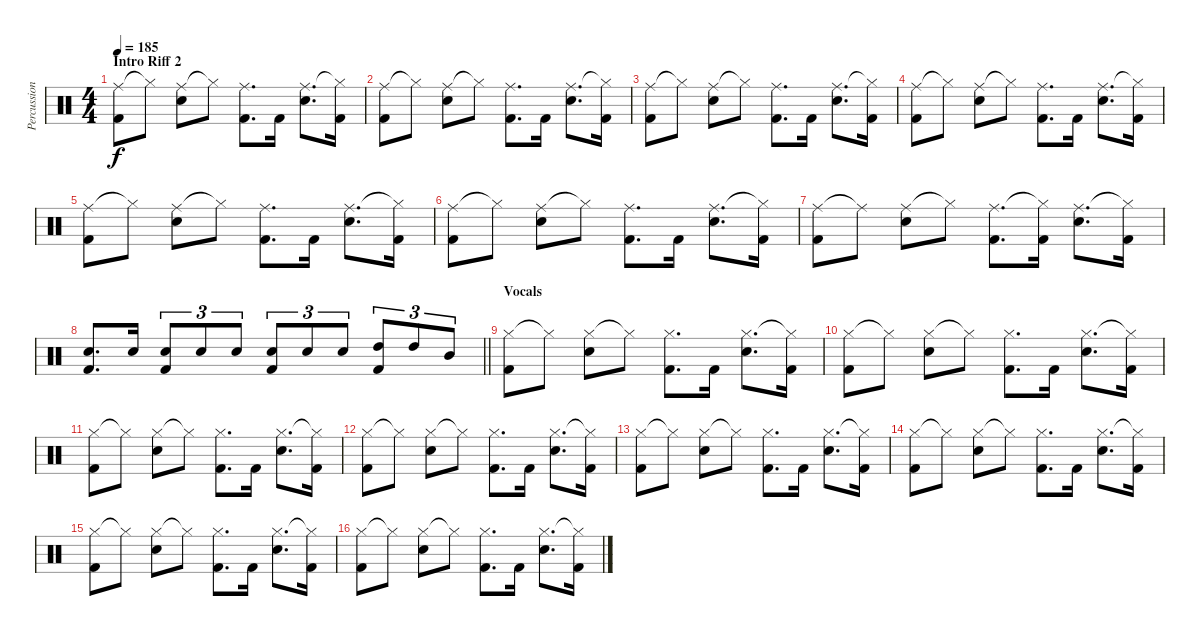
\track ("Percussion" "Percussion") {instrument percussion}
\staff {score}
\articulation defaults
\ts (4 4)
\section ("" "Intro Riff 2")
\tempo 185
\clef neutral
\ks c
("Ride (middle)" "Kick (hit) 2").8{dy f} "Hi-Hat (closed)"{t}.8 ("Ride (middle)" "Snare (hit) 2").8 "Hi-Hat (closed)"{t}.8 ("Ride (middle)" "Kick (hit) 2").8{d} "Kick (hit) 2".16 ("Ride (middle)" "Snare (hit) 2").8{d} ("Hi-Hat (closed)"{t} "Kick (hit) 2").16 |
("Ride (middle)" "Kick (hit) 2").8 "Hi-Hat (closed)"{t}.8 ("Ride (middle)" "Snare (hit) 2").8 "Hi-Hat (closed)"{t}.8 ("Ride (middle)" "Kick (hit) 2").8{d} "Kick (hit) 2".16 ("Ride (middle)" "Snare (hit) 2").8{d} ("Hi-Hat (closed)"{t} "Kick (hit) 2").16 |
("Ride (middle)" "Kick (hit) 2").8 "Hi-Hat (closed)"{t}.8 ("Ride (middle)" "Snare (hit) 2").8 "Hi-Hat (closed)"{t}.8 ("Ride (middle)" "Kick (hit) 2").8{d} "Kick (hit) 2".16 ("Ride (middle)" "Snare (hit) 2").8{d} ("Hi-Hat (closed)"{t} "Kick (hit) 2").16 |
("Ride (middle)" "Kick (hit) 2").8 "Hi-Hat (closed)"{t}.8 ("Ride (middle)" "Snare (hit) 2").8 "Hi-Hat (closed)"{t}.8 ("Ride (middle)" "Kick (hit) 2").8{d} "Kick (hit) 2".16 ("Ride (middle)" "Snare (hit) 2").8{d} ("Hi-Hat (closed)"{t} "Kick (hit) 2").16 |
("Ride (middle)" "Kick (hit) 2").8 "Hi-Hat (closed)"{t}.8 ("Ride (middle)" "Snare (hit) 2").8 "Hi-Hat (closed)"{t}.8 ("Ride (middle)" "Kick (hit) 2").8{d} "Kick (hit) 2".16 ("Ride (middle)" "Snare (hit) 2").8{d} ("Hi-Hat (closed)"{t} "Kick (hit) 2").16 |
("Ride (middle)" "Kick (hit) 2").8 "Hi-Hat (closed)"{t}.8 ("Ride (middle)" "Snare (hit) 2").8 "Hi-Hat (closed)"{t}.8 ("Ride (middle)" "Kick (hit) 2").8{d} "Kick (hit) 2".16 ("Ride (middle)" "Snare (hit) 2").8{d} ("Hi-Hat (closed)"{t} "Kick (hit) 2").16 |
("Ride (middle)" "Kick (hit) 2").8 "Ride (middle)"{t}.8 ("Ride (middle)" "Snare (hit) 2").8 "Hi-Hat (closed)"{t}.8 ("Ride (middle)" "Kick (hit) 2").8{d} ("Hi-Hat (closed)"{t} "Kick (hit) 2").16 ("Ride (middle)" "Snare (hit) 2").8{d} ("Hi-Hat (closed)"{t} "Kick (hit) 2").16 |
\barLineRight lightlight
("Snare (hit) 2" "Kick (hit) 2").8{d} "Snare (hit) 2".16 ("Snare (hit) 2" "Kick (hit) 2").8{tu (3 2)} "Snare (hit) 2".8{tu (3 2)} "Snare (hit) 2".8{tu (3 2)} ("Snare (hit) 2" "Kick (hit) 2").8{tu (3 2)} "Snare (hit) 2".8{tu (3 2)} "Snare (hit) 2".8{tu (3 2)} ("High Tom (hit)" "Kick (hit) 2").8{tu (3 2)} "High Tom (hit)".8{tu (3 2)} "Mid Tom (hit)".8{tu (3 2)} |
\section ("" "Vocals")
("Hi-Hat (closed)" "Kick (hit) 2").8 "Hi-Hat (closed)"{t}.8 ("Hi-Hat (closed)" "Snare (hit) 2").8 "Hi-Hat (closed)"{t}.8 ("Hi-Hat (closed)" "Kick (hit) 2").8{d} "Kick (hit) 2".16 ("Hi-Hat (closed)" "Snare (hit) 2").8{d} ("Hi-Hat (closed)"{t} "Kick (hit) 2").16 |
("Hi-Hat (closed)" "Kick (hit) 2").8 "Hi-Hat (closed)"{t}.8 ("Hi-Hat (closed)" "Snare (hit) 2").8 "Hi-Hat (closed)"{t}.8 ("Hi-Hat (closed)" "Kick (hit) 2").8{d} "Kick (hit) 2".16 ("Hi-Hat (closed)" "Snare (hit) 2").8{d} ("Hi-Hat (closed)"{t} "Kick (hit) 2").16 |
("Hi-Hat (closed)" "Kick (hit) 2").8 "Hi-Hat (closed)"{t}.8 ("Hi-Hat (closed)" "Snare (hit) 2").8 "Hi-Hat (closed)"{t}.8 ("Hi-Hat (closed)" "Kick (hit) 2").8{d} "Kick (hit) 2".16 ("Hi-Hat (closed)" "Snare (hit) 2").8{d} ("Hi-Hat (closed)"{t} "Kick (hit) 2").16 |
("Hi-Hat (closed)" "Kick (hit) 2").8 "Hi-Hat (closed)"{t}.8 ("Hi-Hat (closed)" "Snare (hit) 2").8 "Hi-Hat (closed)"{t}.8 ("Hi-Hat (closed)" "Kick (hit) 2").8{d} "Kick (hit) 2".16 ("Hi-Hat (closed)" "Snare (hit) 2").8{d} ("Hi-Hat (closed)"{t} "Kick (hit) 2").16 |
("Hi-Hat (closed)" "Kick (hit) 2").8 "Hi-Hat (closed)"{t}.8 ("Hi-Hat (closed)" "Snare (hit) 2").8 "Hi-Hat (closed)"{t}.8 ("Hi-Hat (closed)" "Kick (hit) 2").8{d} "Kick (hit) 2".16 ("Hi-Hat (closed)" "Snare (hit) 2").8{d} ("Hi-Hat (closed)"{t} "Kick (hit) 2").16 |
("Hi-Hat (closed)" "Kick (hit) 2").8 "Hi-Hat (closed)"{t}.8 ("Hi-Hat (closed)" "Snare (hit) 2").8 "Hi-Hat (closed)"{t}.8 ("Hi-Hat (closed)" "Kick (hit) 2").8{d} "Kick (hit) 2".16 ("Hi-Hat (closed)" "Snare (hit) 2").8{d} ("Hi-Hat (closed)"{t} "Kick (hit) 2").16 |
("Hi-Hat (closed)" "Kick (hit) 2").8 "Hi-Hat (closed)"{t}.8 ("Hi-Hat (closed)" "Snare (hit) 2").8 "Hi-Hat (closed)"{t}.8 ("Hi-Hat (closed)" "Kick (hit) 2").8{d} "Kick (hit) 2".16 ("Hi-Hat (closed)" "Snare (hit) 2").8{d} ("Hi-Hat (closed)"{t} "Kick (hit) 2").16 |
("Hi-Hat (closed)" "Kick (hit) 2").8 "Hi-Hat (closed)"{t}.8 ("Hi-Hat (closed)" "Snare (hit) 2").8 "Hi-Hat (closed)"{t}.8 ("Hi-Hat (closed)" "Kick (hit) 2").8{d} "Kick (hit) 2".16 ("Hi-Hat (closed)" "Snare (hit) 2").8{d} ("Hi-Hat (closed)"{t} "Kick (hit) 2").16
